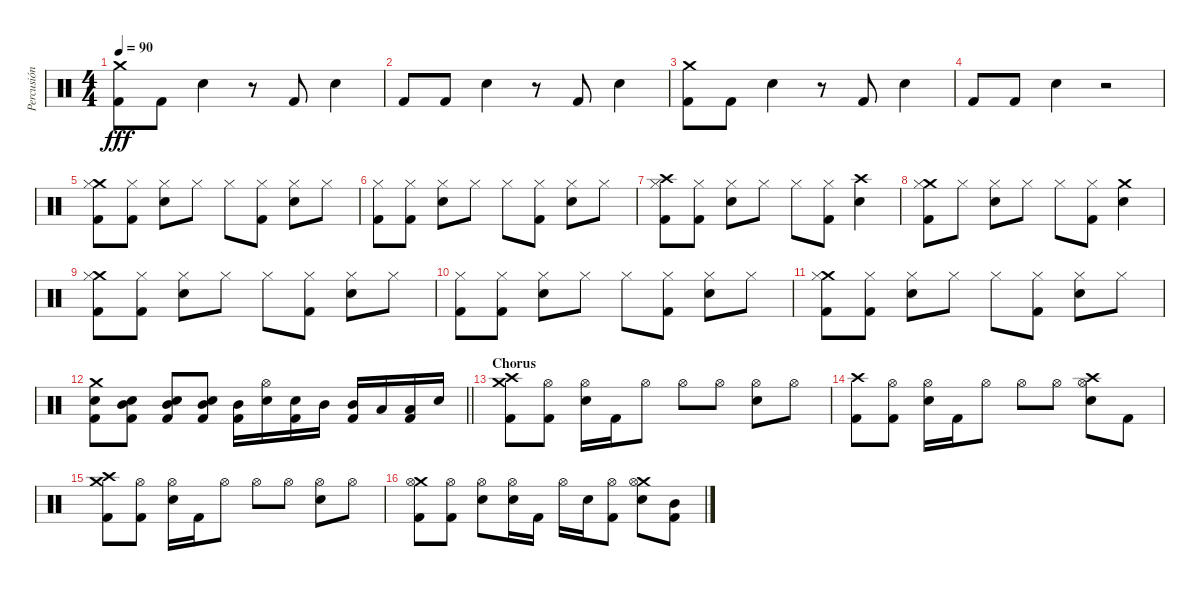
\track ("Percusión" "Percusión") {instrument percussion}
\staff {score}
\articulation defaults
\ts (4 4)
\tempo 90
\clef neutral
\ks c
("Crash medium (hit)" "Kick (hit) 2").8{dy fff} "Kick (hit) 2".8 "Electric Snare (hit)".4 r.8 "Kick (hit) 2".8 "Electric Snare (hit)".4 |
"Kick (hit) 2".8 "Kick (hit) 2".8 "Electric Snare (hit)".4 r.8 "Kick (hit) 2".8 "Electric Snare (hit)".4 |
("Crash medium (hit)" "Kick (hit) 2").8 "Kick (hit) 2".8 "Electric Snare (hit)".4 r.8 "Kick (hit) 2".8 "Electric Snare (hit)".4 |
"Kick (hit) 2".8 "Kick (hit) 2".8 "Electric Snare (hit)".4 r.2 |
("Crash medium (hit)" "Hi-Hat (closed)" "Kick (hit) 2").8 ("Hi-Hat (closed)" "Kick (hit) 2").8 ("Hi-Hat (closed)" "Electric Snare (hit)").8 "Hi-Hat (closed)".8 "Hi-Hat (closed)".8 ("Hi-Hat (closed)" "Kick (hit) 2").8 ("Hi-Hat (closed)" "Electric Snare (hit)").8 "Hi-Hat (closed)".8 |
("Hi-Hat (closed)" "Kick (hit) 2").8 ("Hi-Hat (closed)" "Kick (hit) 2").8 ("Hi-Hat (closed)" "Electric Snare (hit)").8 "Hi-Hat (closed)".8 "Hi-Hat (closed)".8 ("Hi-Hat (closed)" "Kick (hit) 2").8 ("Hi-Hat (closed)" "Electric Snare (hit)").8 "Hi-Hat (closed)".8 |
("Crash high (hit)" "Hi-Hat (closed)" "Kick (hit) 2").8 ("Hi-Hat (closed)" "Kick (hit) 2").8 ("Hi-Hat (closed)" "Electric Snare (hit)").8 "Hi-Hat (closed)".8 "Hi-Hat (closed)".8 ("Hi-Hat (closed)" "Kick (hit) 2").8 ("Crash high (hit)" "Electric Snare (hit)").4 |
("Crash medium (hit)" "Hi-Hat (closed)" "Kick (hit) 2").8 "Hi-Hat (closed)".8 ("Hi-Hat (closed)" "Electric Snare (hit)").8 "Hi-Hat (closed)".8 "Hi-Hat (closed)".8 ("Hi-Hat (closed)" "Kick (hit) 2").8 ("Crash medium (hit)" "Electric Snare (hit)").4 |
("Crash medium (hit)" "Hi-Hat (closed)" "Kick (hit) 2").8 ("Hi-Hat (closed)" "Kick (hit) 2").8 ("Hi-Hat (closed)" "Electric Snare (hit)").8 "Hi-Hat (closed)".8 "Hi-Hat (closed)".8 ("Hi-Hat (closed)" "Kick (hit) 2").8 ("Hi-Hat (closed)" "Electric Snare (hit)").8 "Hi-Hat (closed)".8 |
("Hi-Hat (closed)" "Kick (hit) 2").8 ("Hi-Hat (closed)" "Kick (hit) 2").8 ("Hi-Hat (closed)" "Electric Snare (hit)").8 "Hi-Hat (closed)".8 "Hi-Hat (closed)".8 ("Hi-Hat (closed)" "Kick (hit) 2").8 ("Hi-Hat (closed)" "Electric Snare (hit)").8 "Hi-Hat (closed)".8 |
("Crash medium (hit)" "Hi-Hat (closed)" "Kick (hit) 2").8 ("Hi-Hat (closed)" "Kick (hit) 2").8 ("Hi-Hat (closed)" "Electric Snare (hit)").8 "Hi-Hat (closed)".8 "Hi-Hat (closed)".8 ("Hi-Hat (closed)" "Kick (hit) 2").8 ("Hi-Hat (closed)" "Electric Snare (hit)").8 "Hi-Hat (closed)".8 |
\barLineRight lightlight
("Crash medium (hit)" "Electric Snare (hit)" "Kick (hit) 2").8 ("Electric Snare (hit)" "Mid Tom (hit)" "Kick (hit) 2").8 ("Electric Snare (hit)" "Mid Tom (hit)" "Kick (hit) 2").8 ("Electric Snare (hit)" "Mid Tom (hit)" "Kick (hit) 2").8 ("Mid Tom (hit)" "Kick (hit) 2").16 ("Hi-Hat (open)" "Electric Snare (hit)").16 ("Electric Snare (hit)" "Kick (hit) 2").16 "Mid Tom (hit)".16 ("Mid Tom (hit)" "Kick (hit) 2").16 "Low Tom (hit)".16 ("Low Tom (hit)" "Kick (hit) 2").16 "Electric Snare (hit)".16 |
\section ("" "Chorus")
("Crash medium (hit)" "Crash high (hit)" "Kick (hit) 2").8 ("Hi-Hat (open)" "Kick (hit) 2").8 ("Hi-Hat (open)" "Electric Snare (hit)").16 "Kick (hit) 2".16 "Hi-Hat (open)".8 "Hi-Hat (open)".8 "Hi-Hat (open)".8 ("Hi-Hat (open)" "Electric Snare (hit)").8 "Hi-Hat (open)".8 |
("Crash high (hit)" "Kick (hit) 2").8 ("Hi-Hat (open)" "Kick (hit) 2").8 ("Hi-Hat (open)" "Electric Snare (hit)").16 "Kick (hit) 2".16 "Hi-Hat (open)".8 "Hi-Hat (open)".8 "Hi-Hat (open)".8 ("Crash high (hit)" "Hi-Hat (open)" "Electric Snare (hit)").8 "Kick (hit) 2".8 |
("Crash medium (hit)" "Crash high (hit)" "Kick (hit) 2").8 ("Hi-Hat (open)" "Kick (hit) 2").8 ("Hi-Hat (open)" "Electric Snare (hit)").16 "Kick (hit) 2".16 "Hi-Hat (open)".8 "Hi-Hat (open)".8 "Hi-Hat (open)".8 ("Hi-Hat (open)" "Electric Snare (hit)").8 "Hi-Hat (open)".8 |
("Crash medium (hit)" "Hi-Hat (open)" "Kick (hit) 2").8 ("Hi-Hat (open)" "Kick (hit) 2").8 ("Hi-Hat (open)" "Electric Snare (hit)").8 ("Hi-Hat (open)" "Electric Snare (hit)").16 "Kick (hit) 2".16 "Hi-Hat (open)".16 "Electric Snare (hit)".16 ("Hi-Hat (open)" "Kick (hit) 2").8 ("Crash medium (hit)" "Hi-Hat (open)" "Electric Snare (hit)").8 ("Mid Tom (hit)" "Kick (hit) 2").8
